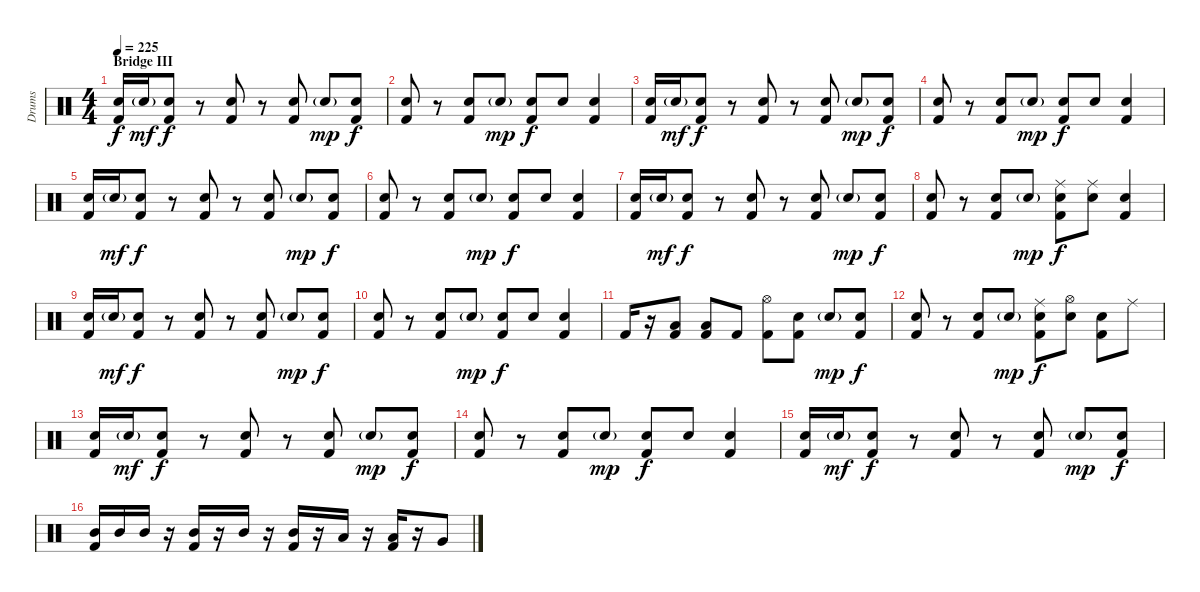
\track ("Drums" "Drums") {instrument percussion}
\staff {score}
\articulation defaults
\ts (4 4)
\section ("" "Bridge III")
\tempo 225
\clef neutral
\ks c
("Electric Snare (hit)" "Kick (hit) 2").16{dy f} "Electric Snare (hit)"{g}.16{dy mf} ("Electric Snare (hit)" "Kick (hit) 2").8{dy f} r.8 ("Electric Snare (hit)" "Kick (hit) 2").8 r.8 ("Electric Snare (hit)" "Kick (hit) 2").8 "Electric Snare (hit)"{g}.8{dy mp} ("Electric Snare (hit)" "Kick (hit) 2").8{dy f} |
("Electric Snare (hit)" "Kick (hit) 2").8 r.8 ("Electric Snare (hit)" "Kick (hit) 2").8 "Electric Snare (hit)"{g}.8{dy mp} ("Electric Snare (hit)" "Kick (hit) 2").8{dy f} "Electric Snare (hit)".8 ("Electric Snare (hit)" "Kick (hit) 2").4 |
("Electric Snare (hit)" "Kick (hit) 2").16 "Electric Snare (hit)"{g}.16{dy mf} ("Electric Snare (hit)" "Kick (hit) 2").8{dy f} r.8 ("Electric Snare (hit)" "Kick (hit) 2").8 r.8 ("Electric Snare (hit)" "Kick (hit) 2").8 "Electric Snare (hit)"{g}.8{dy mp} ("Electric Snare (hit)" "Kick (hit) 2").8{dy f} |
("Electric Snare (hit)" "Kick (hit) 2").8 r.8 ("Electric Snare (hit)" "Kick (hit) 2").8 "Electric Snare (hit)"{g}.8{dy mp} ("Electric Snare (hit)" "Kick (hit) 2").8{dy f} "Electric Snare (hit)".8 ("Electric Snare (hit)" "Kick (hit) 2").4 |
("Electric Snare (hit)" "Kick (hit) 2").16 "Electric Snare (hit)"{g}.16{dy mf} ("Electric Snare (hit)" "Kick (hit) 2").8{dy f} r.8 ("Electric Snare (hit)" "Kick (hit) 2").8 r.8 ("Electric Snare (hit)" "Kick (hit) 2").8 "Electric Snare (hit)"{g}.8{dy mp} ("Electric Snare (hit)" "Kick (hit) 2").8{dy f} |
("Electric Snare (hit)" "Kick (hit) 2").8 r.8 ("Electric Snare (hit)" "Kick (hit) 2").8 "Electric Snare (hit)"{g}.8{dy mp} ("Electric Snare (hit)" "Kick (hit) 2").8{dy f} "Electric Snare (hit)".8 ("Electric Snare (hit)" "Kick (hit) 2").4 |
("Electric Snare (hit)" "Kick (hit) 2").16 "Electric Snare (hit)"{g}.16{dy mf} ("Electric Snare (hit)" "Kick (hit) 2").8{dy f} r.8 ("Electric Snare (hit)" "Kick (hit) 2").8 r.8 ("Electric Snare (hit)" "Kick (hit) 2").8 "Electric Snare (hit)"{g}.8{dy mp} ("Electric Snare (hit)" "Kick (hit) 2").8{dy f} |
("Electric Snare (hit)" "Kick (hit) 2").8 r.8 ("Electric Snare (hit)" "Kick (hit) 2").8 "Electric Snare (hit)"{g}.8{dy mp} ("Ride (middle)" "Electric Snare (hit)" "Kick (hit) 2").8{dy f} ("Ride (middle)" "Electric Snare (hit)").8 ("Electric Snare (hit)" "Kick (hit) 2").4 |
("Electric Snare (hit)" "Kick (hit) 2").16 "Electric Snare (hit)"{g}.16{dy mf} ("Electric Snare (hit)" "Kick (hit) 2").8{dy f} r.8 ("Electric Snare (hit)" "Kick (hit) 2").8 r.8 ("Electric Snare (hit)" "Kick (hit) 2").8 "Electric Snare (hit)"{g}.8{dy mp} ("Electric Snare (hit)" "Kick (hit) 2").8{dy f} |
("Electric Snare (hit)" "Kick (hit) 2").8 r.8 ("Electric Snare (hit)" "Kick (hit) 2").8 "Electric Snare (hit)"{g}.8{dy mp} ("Electric Snare (hit)" "Kick (hit) 2").8{dy f} "Electric Snare (hit)".8 ("Electric Snare (hit)" "Kick (hit) 2").4 |
"Kick (hit) 2".16 r.16 ("Low Tom (hit)" "Kick (hit) 2").8 ("Low Tom (hit)" "Kick (hit) 2").8 "Kick (hit) 2".8 ("Hi-Hat (open)" "Kick (hit) 2").8 ("Electric Snare (hit)" "Kick (hit) 2").8 "Electric Snare (hit)"{g}.8{dy mp} ("Electric Snare (hit)" "Kick (hit) 2").8{dy f} |
("Electric Snare (hit)" "Kick (hit) 2").8 r.8 ("Electric Snare (hit)" "Kick (hit) 2").8 "Electric Snare (hit)"{g}.8{dy mp} ("Ride (middle)" "Electric Snare (hit)" "Kick (hit) 2").8{dy f} ("Hi-Hat (open)" "Electric Snare (hit)").8 ("Electric Snare (hit)" "Kick (hit) 2").8 "Ride (middle)".8 |
("Electric Snare (hit)" "Kick (hit) 2").16 "Electric Snare (hit)"{g}.16{dy mf} ("Electric Snare (hit)" "Kick (hit) 2").8{dy f} r.8 ("Electric Snare (hit)" "Kick (hit) 2").8 r.8 ("Electric Snare (hit)" "Kick (hit) 2").8 "Electric Snare (hit)"{g}.8{dy mp} ("Electric Snare (hit)" "Kick (hit) 2").8{dy f} |
("Electric Snare (hit)" "Kick (hit) 2").8 r.8 ("Electric Snare (hit)" "Kick (hit) 2").8 "Electric Snare (hit)"{g}.8{dy mp} ("Electric Snare (hit)" "Kick (hit) 2").8{dy f} "Electric Snare (hit)".8 ("Electric Snare (hit)" "Kick (hit) 2").4 |
("Electric Snare (hit)" "Kick (hit) 2").16 "Electric Snare (hit)"{g}.16{dy mf} ("Electric Snare (hit)" "Kick (hit) 2").8{dy f} r.8 ("Electric Snare (hit)" "Kick (hit) 2").8 r.8 ("Electric Snare (hit)" "Kick (hit) 2").8 "Electric Snare (hit)"{g}.8{dy mp} ("Electric Snare (hit)" "Kick (hit) 2").8{dy f} |
("Mid Tom (hit)" "Kick (hit) 2").16 "Mid Tom (hit)".16 "Mid Tom (hit)".16 r.16 ("Mid Tom (hit)" "Kick (hit) 2").16 r.16 "Mid Tom (hit)".16 r.16 ("Mid Tom (hit)" "Kick (hit) 2").16 r.16 "Low Tom (hit)".16 r.16 ("Low Tom (hit)" "Kick (hit) 2").16 r.16 "Very Low Tom (hit)".8
